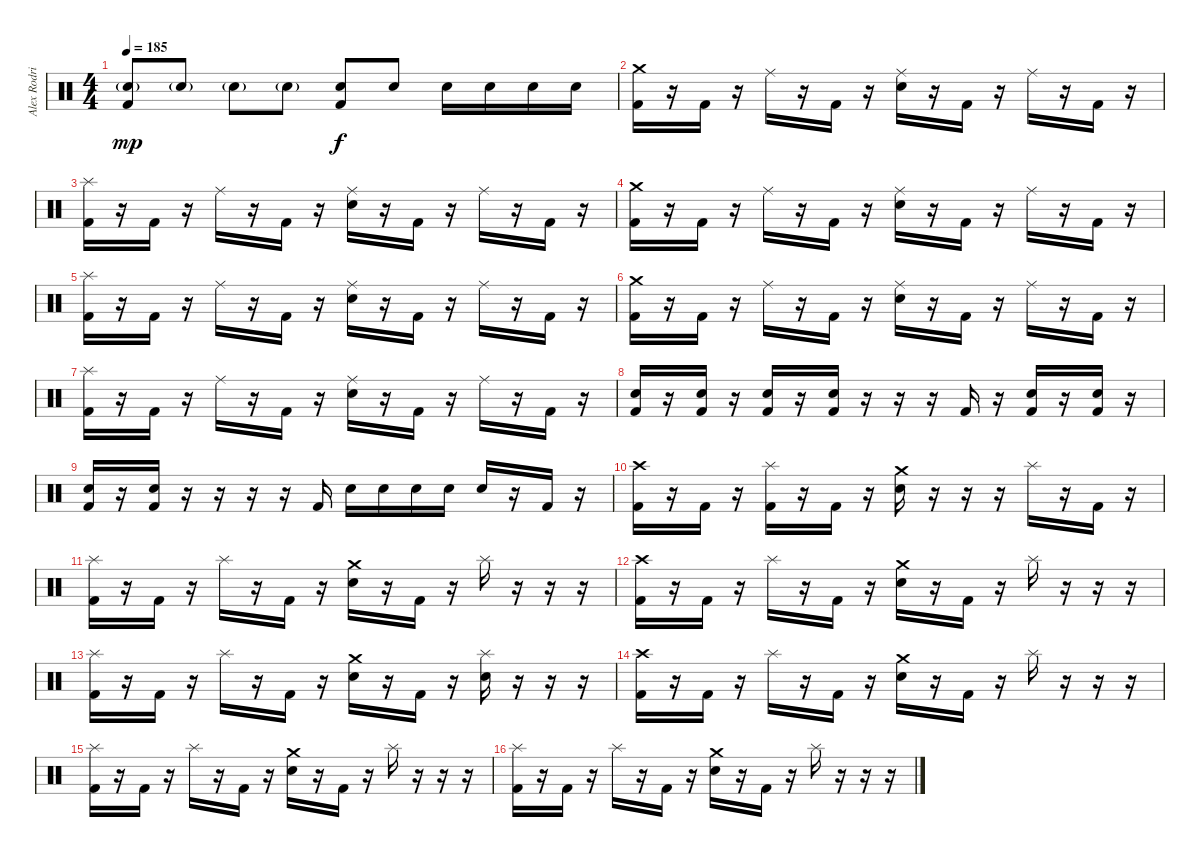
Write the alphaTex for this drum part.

\track ("Alex Rodriguez" "Alex Rodri") {instrument percussion}
\staff {score}
\articulation defaults
\ts (4 4)
\tempo 185
\clef neutral
\ks c
("Electric Snare (hit)"{g} "Kick (hit) 2").8{dy mp} "Electric Snare (hit)"{g}.8 "Electric Snare (hit)"{g}.8 "Electric Snare (hit)"{g}.8 ("Electric Snare (hit)" "Kick (hit) 2").8{dy f} "Electric Snare (hit)".8 "Electric Snare (hit)".16 "Electric Snare (hit)".16 "Electric Snare (hit)".16 "Electric Snare (hit)".16 |
("Crash medium (hit)" "Kick (hit) 2").16 r.16 "Kick (hit) 2".16 r.16 "Ride (middle)".16 r.16 "Kick (hit) 2".16 r.16 ("Ride (middle)" "Electric Snare (hit)").16 r.16 "Kick (hit) 2".16 r.16 "Ride (middle)".16 r.16 "Kick (hit) 2".16 r.16 |
("Splash (hit)" "Kick (hit) 2").16 r.16 "Kick (hit) 2".16 r.16 "Ride (middle)".16 r.16 "Kick (hit) 2".16 r.16 ("Ride (middle)" "Electric Snare (hit)").16 r.16 "Kick (hit) 2".16 r.16 "Ride (middle)".16 r.16 "Kick (hit) 2".16 r.16 |
("Crash medium (hit)" "Kick (hit) 2").16 r.16 "Kick (hit) 2".16 r.16 "Ride (middle)".16 r.16 "Kick (hit) 2".16 r.16 ("Ride (middle)" "Electric Snare (hit)").16 r.16 "Kick (hit) 2".16 r.16 "Ride (middle)".16 r.16 "Kick (hit) 2".16 r.16 |
("Splash (hit)" "Kick (hit) 2").16 r.16 "Kick (hit) 2".16 r.16 "Ride (middle)".16 r.16 "Kick (hit) 2".16 r.16 ("Ride (middle)" "Electric Snare (hit)").16 r.16 "Kick (hit) 2".16 r.16 "Ride (middle)".16 r.16 "Kick (hit) 2".16 r.16 |
("Crash medium (hit)" "Kick (hit) 2").16 r.16 "Kick (hit) 2".16 r.16 "Ride (middle)".16 r.16 "Kick (hit) 2".16 r.16 ("Ride (middle)" "Electric Snare (hit)").16 r.16 "Kick (hit) 2".16 r.16 "Ride (middle)".16 r.16 "Kick (hit) 2".16 r.16 |
("Splash (hit)" "Kick (hit) 2").16 r.16 "Kick (hit) 2".16 r.16 "Ride (middle)".16 r.16 "Kick (hit) 2".16 r.16 ("Ride (middle)" "Electric Snare (hit)").16 r.16 "Kick (hit) 2".16 r.16 "Ride (middle)".16 r.16 "Kick (hit) 2".16 r.16 |
("Electric Snare (hit)" "Kick (hit) 2").16 r.16 ("Electric Snare (hit)" "Kick (hit) 2").16 r.16 ("Electric Snare (hit)" "Kick (hit) 2").16 r.16 ("Electric Snare (hit)" "Kick (hit) 2").16 r.16 r.16 r.16 "Kick (hit) 2".16 r.16 ("Electric Snare (hit)" "Kick (hit) 2").16 r.16 ("Electric Snare (hit)" "Kick (hit) 2").16 r.16 |
("Electric Snare (hit)" "Kick (hit) 2").16 r.16 ("Electric Snare (hit)" "Kick (hit) 2").16 r.16 r.16 r.16 r.16 "Kick (hit) 2".16 "Electric Snare (hit)".16 "Electric Snare (hit)".16 "Electric Snare (hit)".16 "Electric Snare (hit)".16 "Electric Snare (hit)".16 r.16 "Kick (hit) 2".16 r.16 |
("Crash high (hit)" "Kick (hit) 2").16 r.16 "Kick (hit) 2".16 r.16 ("Splash (hit)" "Kick (hit) 2").16 r.16 "Kick (hit) 2".16 r.16 ("Crash medium (hit)" "Electric Snare (hit)").16 r.16 r.16 r.16 "Splash (hit)".16 r.16 "Kick (hit) 2".16 r.16 |
("Splash (hit)" "Kick (hit) 2").16 r.16 "Kick (hit) 2".16 r.16 "Splash (hit)".16 r.16 "Kick (hit) 2".16 r.16 ("Crash medium (hit)" "Electric Snare (hit)").16 r.16 "Kick (hit) 2".16 r.16 "Splash (hit)".16 r.16 r.16 r.16 |
("Crash high (hit)" "Kick (hit) 2").16 r.16 "Kick (hit) 2".16 r.16 "Splash (hit)".16 r.16 "Kick (hit) 2".16 r.16 ("Crash medium (hit)" "Electric Snare (hit)").16 r.16 "Kick (hit) 2".16 r.16 "Splash (hit)".16 r.16 r.16 r.16 |
("Splash (hit)" "Kick (hit) 2").16 r.16 "Kick (hit) 2".16 r.16 "Splash (hit)".16 r.16 "Kick (hit) 2".16 r.16 ("Crash medium (hit)" "Electric Snare (hit)").16 r.16 "Kick (hit) 2".16 r.16 ("Splash (hit)" "Electric Snare (hit)").16 r.16 r.16 r.16 |
("Crash high (hit)" "Kick (hit) 2").16 r.16 "Kick (hit) 2".16 r.16 "Splash (hit)".16 r.16 "Kick (hit) 2".16 r.16 ("Crash medium (hit)" "Electric Snare (hit)").16 r.16 "Kick (hit) 2".16 r.16 "Splash (hit)".16 r.16 r.16 r.16 |
("Splash (hit)" "Kick (hit) 2").16 r.16 "Kick (hit) 2".16 r.16 "Splash (hit)".16 r.16 "Kick (hit) 2".16 r.16 ("Crash medium (hit)" "Electric Snare (hit)").16 r.16 "Kick (hit) 2".16 r.16 "Splash (hit)".16 r.16 r.16 r.16 |
("Splash (hit)" "Kick (hit) 2").16 r.16 "Kick (hit) 2".16 r.16 "Splash (hit)".16 r.16 "Kick (hit) 2".16 r.16 ("Crash medium (hit)" "Electric Snare (hit)").16 r.16 "Kick (hit) 2".16 r.16 "Splash (hit)".16 r.16 r.16 r.16
